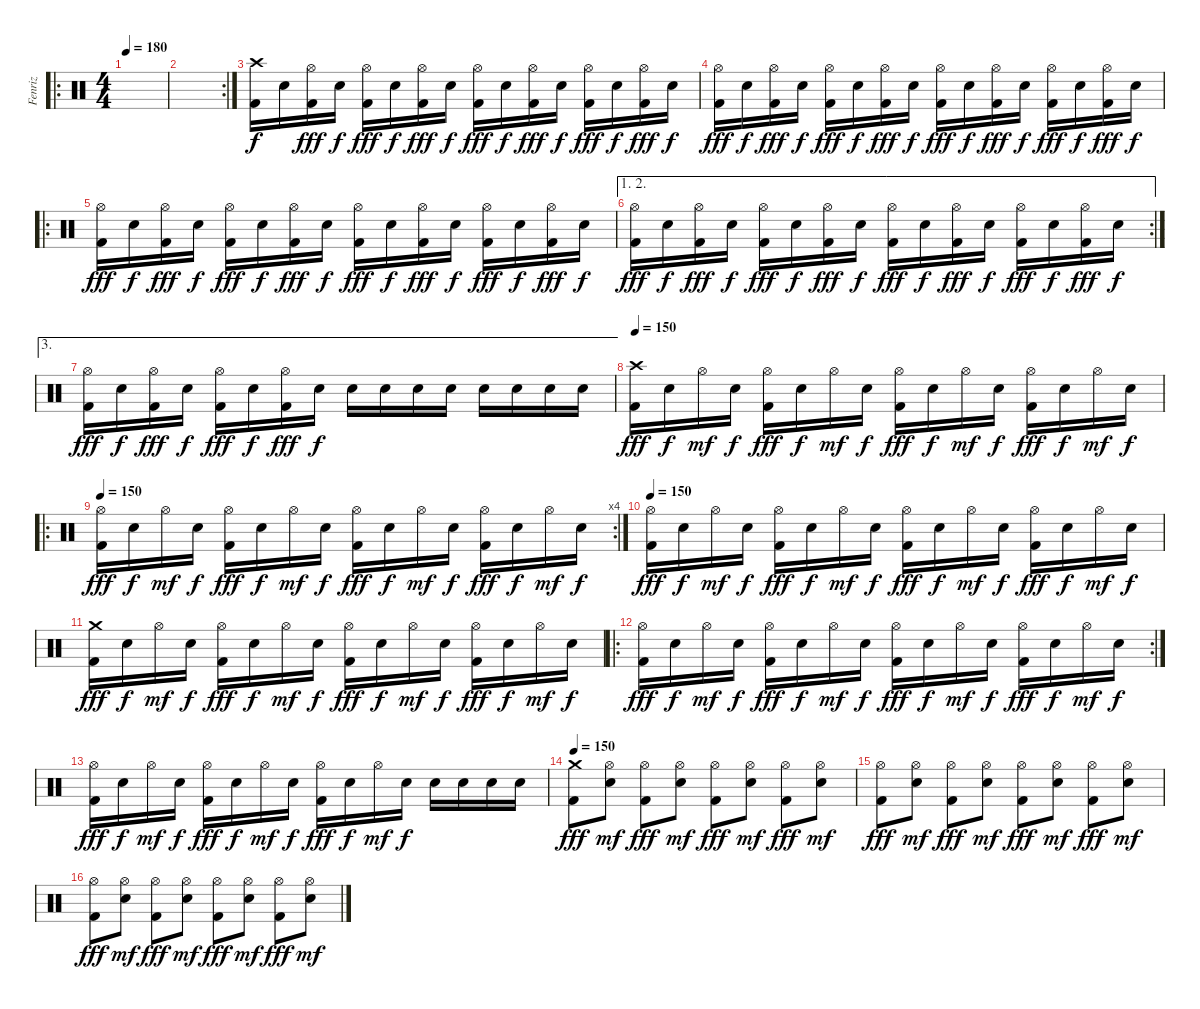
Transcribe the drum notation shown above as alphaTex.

\track ("Fenriz" "Fenriz") {instrument percussion}
\staff {score}
\articulation defaults
\ro
\ts (4 4)
\tempo 180
\clef neutral
\ks c
|
\rc 2
|
("Crash high (hit)" "Kick (hit) 2").16 "Electric Snare (hit)".16{dy f} ("Hi-Hat (open)" "Kick (hit) 2").16{dy fff} "Electric Snare (hit)".16{dy f} ("Hi-Hat (open)" "Kick (hit) 2").16{dy fff} "Electric Snare (hit)".16{dy f} ("Hi-Hat (open)" "Kick (hit) 2").16{dy fff} "Electric Snare (hit)".16{dy f} ("Hi-Hat (open)" "Kick (hit) 2").16{dy fff} "Electric Snare (hit)".16{dy f} ("Hi-Hat (open)" "Kick (hit) 2").16{dy fff} "Electric Snare (hit)".16{dy f} ("Hi-Hat (open)" "Kick (hit) 2").16{dy fff} "Electric Snare (hit)".16{dy f} ("Hi-Hat (open)" "Kick (hit) 2").16{dy fff} "Electric Snare (hit)".16{dy f} |
("Hi-Hat (open)" "Kick (hit) 2").16{dy fff} "Electric Snare (hit)".16{dy f} ("Hi-Hat (open)" "Kick (hit) 2").16{dy fff} "Electric Snare (hit)".16{dy f} ("Hi-Hat (open)" "Kick (hit) 2").16{dy fff} "Electric Snare (hit)".16{dy f} ("Hi-Hat (open)" "Kick (hit) 2").16{dy fff} "Electric Snare (hit)".16{dy f} ("Hi-Hat (open)" "Kick (hit) 2").16{dy fff} "Electric Snare (hit)".16{dy f} ("Hi-Hat (open)" "Kick (hit) 2").16{dy fff} "Electric Snare (hit)".16{dy f} ("Hi-Hat (open)" "Kick (hit) 2").16{dy fff} "Electric Snare (hit)".16{dy f} ("Hi-Hat (open)" "Kick (hit) 2").16{dy fff} "Electric Snare (hit)".16{dy f} |
\ro
("Hi-Hat (open)" "Kick (hit) 2").16{dy fff} "Electric Snare (hit)".16{dy f} ("Hi-Hat (open)" "Kick (hit) 2").16{dy fff} "Electric Snare (hit)".16{dy f} ("Hi-Hat (open)" "Kick (hit) 2").16{dy fff} "Electric Snare (hit)".16{dy f} ("Hi-Hat (open)" "Kick (hit) 2").16{dy fff} "Electric Snare (hit)".16{dy f} ("Hi-Hat (open)" "Kick (hit) 2").16{dy fff} "Electric Snare (hit)".16{dy f} ("Hi-Hat (open)" "Kick (hit) 2").16{dy fff} "Electric Snare (hit)".16{dy f} ("Hi-Hat (open)" "Kick (hit) 2").16{dy fff} "Electric Snare (hit)".16{dy f} ("Hi-Hat (open)" "Kick (hit) 2").16{dy fff} "Electric Snare (hit)".16{dy f} |
\ae (1 2)
\rc 2
("Hi-Hat (open)" "Kick (hit) 2").16{dy fff} "Electric Snare (hit)".16{dy f} ("Hi-Hat (open)" "Kick (hit) 2").16{dy fff} "Electric Snare (hit)".16{dy f} ("Hi-Hat (open)" "Kick (hit) 2").16{dy fff} "Electric Snare (hit)".16{dy f} ("Hi-Hat (open)" "Kick (hit) 2").16{dy fff} "Electric Snare (hit)".16{dy f} ("Hi-Hat (open)" "Kick (hit) 2").16{dy fff} "Electric Snare (hit)".16{dy f} ("Hi-Hat (open)" "Kick (hit) 2").16{dy fff} "Electric Snare (hit)".16{dy f} ("Hi-Hat (open)" "Kick (hit) 2").16{dy fff} "Electric Snare (hit)".16{dy f} ("Hi-Hat (open)" "Kick (hit) 2").16{dy fff} "Electric Snare (hit)".16{dy f} |
\ae 3
("Hi-Hat (open)" "Kick (hit) 2").16{dy fff} "Electric Snare (hit)".16{dy f} ("Hi-Hat (open)" "Kick (hit) 2").16{dy fff} "Electric Snare (hit)".16{dy f} ("Hi-Hat (open)" "Kick (hit) 2").16{dy fff} "Electric Snare (hit)".16{dy f} ("Hi-Hat (open)" "Kick (hit) 2").16{dy fff} "Electric Snare (hit)".16{dy f} "Electric Snare (hit)".16 "Electric Snare (hit)".16 "Electric Snare (hit)".16 "Electric Snare (hit)".16 "Electric Snare (hit)".16 "Electric Snare (hit)".16 "Electric Snare (hit)".16 "Electric Snare (hit)".16 |
\tempo 150
("Crash high (hit)" "Kick (hit) 2").16{dy fff} "Electric Snare (hit)".16{dy f} "Hi-Hat (open)".16{dy mf} "Electric Snare (hit)".16{dy f} ("Hi-Hat (open)" "Kick (hit) 2").16{dy fff} "Electric Snare (hit)".16{dy f} "Hi-Hat (open)".16{dy mf} "Electric Snare (hit)".16{dy f} ("Hi-Hat (open)" "Kick (hit) 2").16{dy fff} "Electric Snare (hit)".16{dy f} "Hi-Hat (open)".16{dy mf} "Electric Snare (hit)".16{dy f} ("Hi-Hat (open)" "Kick (hit) 2").16{dy fff} "Electric Snare (hit)".16{dy f} "Hi-Hat (open)".16{dy mf} "Electric Snare (hit)".16{dy f} |
\ro
\rc 4
\tempo 150
("Hi-Hat (open)" "Kick (hit) 2").16{dy fff} "Electric Snare (hit)".16{dy f} "Hi-Hat (open)".16{dy mf} "Electric Snare (hit)".16{dy f} ("Hi-Hat (open)" "Kick (hit) 2").16{dy fff} "Electric Snare (hit)".16{dy f} "Hi-Hat (open)".16{dy mf} "Electric Snare (hit)".16{dy f} ("Hi-Hat (open)" "Kick (hit) 2").16{dy fff} "Electric Snare (hit)".16{dy f} "Hi-Hat (open)".16{dy mf} "Electric Snare (hit)".16{dy f} ("Hi-Hat (open)" "Kick (hit) 2").16{dy fff} "Electric Snare (hit)".16{dy f} "Hi-Hat (open)".16{dy mf} "Electric Snare (hit)".16{dy f} |
\tempo 150
("Hi-Hat (open)" "Kick (hit) 2").16{dy fff} "Electric Snare (hit)".16{dy f} "Hi-Hat (open)".16{dy mf} "Electric Snare (hit)".16{dy f} ("Hi-Hat (open)" "Kick (hit) 2").16{dy fff} "Electric Snare (hit)".16{dy f} "Hi-Hat (open)".16{dy mf} "Electric Snare (hit)".16{dy f} ("Hi-Hat (open)" "Kick (hit) 2").16{dy fff} "Electric Snare (hit)".16{dy f} "Hi-Hat (open)".16{dy mf} "Electric Snare (hit)".16{dy f} ("Hi-Hat (open)" "Kick (hit) 2").16{dy fff} "Electric Snare (hit)".16{dy f} "Hi-Hat (open)".16{dy mf} "Electric Snare (hit)".16{dy f} |
("Crash medium (hit)" "Kick (hit) 2").16{dy fff} "Electric Snare (hit)".16{dy f} "Hi-Hat (open)".16{dy mf} "Electric Snare (hit)".16{dy f} ("Hi-Hat (open)" "Kick (hit) 2").16{dy fff} "Electric Snare (hit)".16{dy f} "Hi-Hat (open)".16{dy mf} "Electric Snare (hit)".16{dy f} ("Hi-Hat (open)" "Kick (hit) 2").16{dy fff} "Electric Snare (hit)".16{dy f} "Hi-Hat (open)".16{dy mf} "Electric Snare (hit)".16{dy f} ("Hi-Hat (open)" "Kick (hit) 2").16{dy fff} "Electric Snare (hit)".16{dy f} "Hi-Hat (open)".16{dy mf} "Electric Snare (hit)".16{dy f} |
\ro
\rc 2
("Hi-Hat (open)" "Kick (hit) 2").16{dy fff} "Electric Snare (hit)".16{dy f} "Hi-Hat (open)".16{dy mf} "Electric Snare (hit)".16{dy f} ("Hi-Hat (open)" "Kick (hit) 2").16{dy fff} "Electric Snare (hit)".16{dy f} "Hi-Hat (open)".16{dy mf} "Electric Snare (hit)".16{dy f} ("Hi-Hat (open)" "Kick (hit) 2").16{dy fff} "Electric Snare (hit)".16{dy f} "Hi-Hat (open)".16{dy mf} "Electric Snare (hit)".16{dy f} ("Hi-Hat (open)" "Kick (hit) 2").16{dy fff} "Electric Snare (hit)".16{dy f} "Hi-Hat (open)".16{dy mf} "Electric Snare (hit)".16{dy f} |
("Hi-Hat (open)" "Kick (hit) 2").16{dy fff} "Electric Snare (hit)".16{dy f} "Hi-Hat (open)".16{dy mf} "Electric Snare (hit)".16{dy f} ("Hi-Hat (open)" "Kick (hit) 2").16{dy fff} "Electric Snare (hit)".16{dy f} "Hi-Hat (open)".16{dy mf} "Electric Snare (hit)".16{dy f} ("Hi-Hat (open)" "Kick (hit) 2").16{dy fff} "Electric Snare (hit)".16{dy f} "Hi-Hat (open)".16{dy mf} "Electric Snare (hit)".16{dy f} "Electric Snare (hit)".16 "Electric Snare (hit)".16 "Electric Snare (hit)".16 "Electric Snare (hit)".16 |
\tempo 150
("Crash medium (hit)" "Kick (hit) 2").8{dy fff} ("Hi-Hat (open)" "Electric Snare (hit)").8{dy mf} ("Hi-Hat (open)" "Kick (hit) 2").8{dy fff} ("Hi-Hat (open)" "Electric Snare (hit)").8{dy mf} ("Hi-Hat (open)" "Kick (hit) 2").8{dy fff} ("Hi-Hat (open)" "Electric Snare (hit)").8{dy mf} ("Hi-Hat (open)" "Kick (hit) 2").8{dy fff} ("Hi-Hat (open)" "Electric Snare (hit)").8{dy mf} |
("Hi-Hat (open)" "Kick (hit) 2").8{dy fff} ("Hi-Hat (open)" "Electric Snare (hit)").8{dy mf} ("Hi-Hat (open)" "Kick (hit) 2").8{dy fff} ("Hi-Hat (open)" "Electric Snare (hit)").8{dy mf} ("Hi-Hat (open)" "Kick (hit) 2").8{dy fff} ("Hi-Hat (open)" "Electric Snare (hit)").8{dy mf} ("Hi-Hat (open)" "Kick (hit) 2").8{dy fff} ("Hi-Hat (open)" "Electric Snare (hit)").8{dy mf} |
("Hi-Hat (open)" "Kick (hit) 2").8{dy fff} ("Hi-Hat (open)" "Electric Snare (hit)").8{dy mf} ("Hi-Hat (open)" "Kick (hit) 2").8{dy fff} ("Hi-Hat (open)" "Electric Snare (hit)").8{dy mf} ("Hi-Hat (open)" "Kick (hit) 2").8{dy fff} ("Hi-Hat (open)" "Electric Snare (hit)").8{dy mf} ("Hi-Hat (open)" "Kick (hit) 2").8{dy fff} ("Hi-Hat (open)" "Electric Snare (hit)").8{dy mf}
